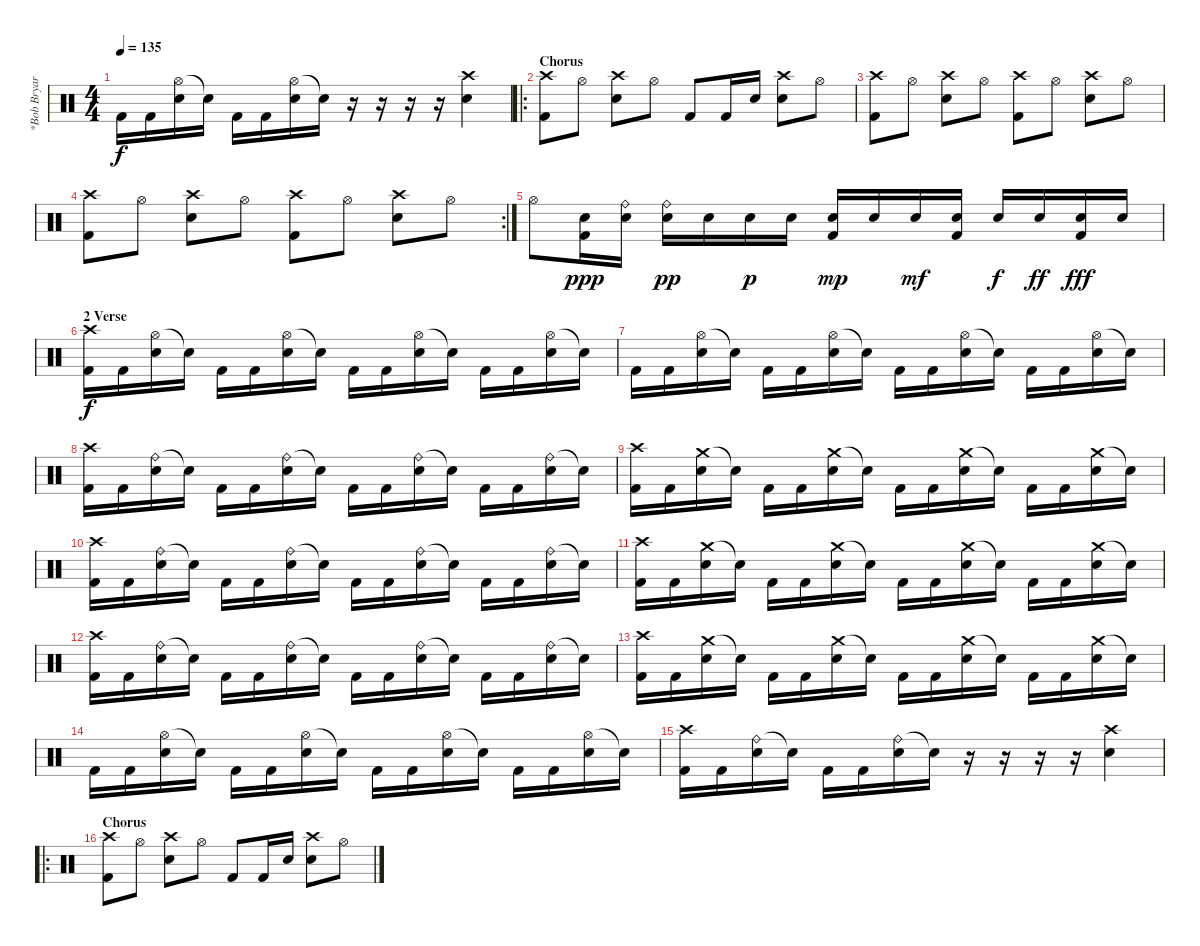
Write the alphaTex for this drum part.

\track ("*Bob Bryar" "*Bob Bryar") {instrument percussion}
\staff {score}
\articulation defaults
\ts (4 4)
\tempo 135
\clef neutral
\ks c "Kick (hit) 2".16{dy f} "Kick (hit) 2".16
("Hi-Hat (open)" "Electric Snare (hit)").16 "Snare (hit)"{t}.16 "Kick (hit) 2".16 "Kick (hit) 2".16 ("Hi-Hat (open)" "Electric Snare (hit)").16 "Snare (hit)"{t}.16 r.16 r.16 r.16 r.16 ("Crash high (hit)" "Electric Snare (hit)").4 |
\ro
\section ("" "Chorus")
("Crash high (hit)" "Kick (hit) 2").8 "Hi-Hat (open)".8 ("Crash high (hit)" "Electric Snare (hit)").8 "Hi-Hat (open)".8 "Kick (hit) 2".8 "Kick (hit) 2".16 "Electric Snare (hit)".16 ("Crash high (hit)" "Electric Snare (hit)").8 "Hi-Hat (open)".8 |
("Crash high (hit)" "Kick (hit) 2").8 "Hi-Hat (open)".8 ("Crash high (hit)" "Electric Snare (hit)").8 "Hi-Hat (open)".8 ("Crash high (hit)" "Kick (hit) 2").8 "Hi-Hat (open)".8 ("Crash high (hit)" "Electric Snare (hit)").8 "Hi-Hat (open)".8 |
\rc 2
("Crash high (hit)" "Kick (hit) 2").8 "Hi-Hat (open)".8 ("Crash high (hit)" "Electric Snare (hit)").8 "Hi-Hat (open)".8 ("Crash high (hit)" "Kick (hit) 2").8 "Hi-Hat (open)".8 ("Crash high (hit)" "Electric Snare (hit)").8 "Hi-Hat (open)".8 |
"Hi-Hat (open)".8 ("Electric Snare (hit)" "Kick (hit) 2").16{dy ppp} ("Ride (bell)" "Electric Snare (hit)").16 ("Ride (bell)" "Electric Snare (hit)").16{dy pp} "Electric Snare (hit)".16 "Electric Snare (hit)".16{dy p} "Electric Snare (hit)".16 ("Electric Snare (hit)" "Kick (hit) 2").16{dy mp} "Electric Snare (hit)".16 "Electric Snare (hit)".16{dy mf} ("Electric Snare (hit)" "Kick (hit) 2").16 "Electric Snare (hit)".16{dy f} "Electric Snare (hit)".16{dy ff} ("Electric Snare (hit)" "Kick (hit) 2").16{dy fff} "Electric Snare (hit)".16 |
\section ("" "2 Verse")
("Crash high (hit)" "Kick (hit) 2").16{dy f} "Kick (hit) 2".16 ("Hi-Hat (open)" "Electric Snare (hit)").16 "Snare (hit)"{t}.16 "Kick (hit) 2".16 "Kick (hit) 2".16 ("Hi-Hat (open)" "Electric Snare (hit)").16 "Snare (hit)"{t}.16 "Kick (hit) 2".16 "Kick (hit) 2".16 ("Hi-Hat (open)" "Electric Snare (hit)").16 "Snare (hit)"{t}.16 "Kick (hit) 2".16 "Kick (hit) 2".16 ("Hi-Hat (open)" "Electric Snare (hit)").16 "Snare (hit)"{t}.16 |
"Kick (hit) 2".16 "Kick (hit) 2".16 ("Hi-Hat (open)" "Electric Snare (hit)").16 "Snare (hit)"{t}.16 "Kick (hit) 2".16 "Kick (hit) 2".16 ("Hi-Hat (open)" "Electric Snare (hit)").16 "Snare (hit)"{t}.16 "Kick (hit) 2".16 "Kick (hit) 2".16 ("Hi-Hat (open)" "Electric Snare (hit)").16 "Snare (hit)"{t}.16 "Kick (hit) 2".16 "Kick (hit) 2".16 ("Hi-Hat (open)" "Electric Snare (hit)").16 "Snare (hit)"{t}.16 |
("Crash high (hit)" "Kick (hit) 2").16 "Kick (hit) 2".16 ("Ride (bell)" "Electric Snare (hit)").16 "Snare (hit)"{t}.16 "Kick (hit) 2".16 "Kick (hit) 2".16 ("Ride (bell)" "Electric Snare (hit)").16 "Snare (hit)"{t}.16 "Kick (hit) 2".16 "Kick (hit) 2".16 ("Ride (bell)" "Electric Snare (hit)").16 "Snare (hit)"{t}.16 "Kick (hit) 2".16 "Kick (hit) 2".16 ("Ride (bell)" "Electric Snare (hit)").16 "Snare (hit)"{t}.16 |
("Crash high (hit)" "Kick (hit) 2").16 "Kick (hit) 2".16 ("Crash medium (hit)" "Electric Snare (hit)").16 "Snare (hit)"{t}.16 "Kick (hit) 2".16 "Kick (hit) 2".16 ("Crash medium (hit)" "Electric Snare (hit)").16 "Snare (hit)"{t}.16 "Kick (hit) 2".16 "Kick (hit) 2".16 ("Crash medium (hit)" "Electric Snare (hit)").16 "Snare (hit)"{t}.16 "Kick (hit) 2".16 "Kick (hit) 2".16 ("Crash medium (hit)" "Electric Snare (hit)").16 "Snare (hit)"{t}.16 |
("Crash high (hit)" "Kick (hit) 2").16 "Kick (hit) 2".16 ("Ride (bell)" "Electric Snare (hit)").16 "Snare (hit)"{t}.16 "Kick (hit) 2".16 "Kick (hit) 2".16 ("Ride (bell)" "Electric Snare (hit)").16 "Snare (hit)"{t}.16 "Kick (hit) 2".16 "Kick (hit) 2".16 ("Ride (bell)" "Electric Snare (hit)").16 "Snare (hit)"{t}.16 "Kick (hit) 2".16 "Kick (hit) 2".16 ("Ride (bell)" "Electric Snare (hit)").16 "Snare (hit)"{t}.16 |
("Crash high (hit)" "Kick (hit) 2").16 "Kick (hit) 2".16 ("Crash medium (hit)" "Electric Snare (hit)").16 "Snare (hit)"{t}.16 "Kick (hit) 2".16 "Kick (hit) 2".16 ("Crash medium (hit)" "Electric Snare (hit)").16 "Snare (hit)"{t}.16 "Kick (hit) 2".16 "Kick (hit) 2".16 ("Crash medium (hit)" "Electric Snare (hit)").16 "Snare (hit)"{t}.16 "Kick (hit) 2".16 "Kick (hit) 2".16 ("Crash medium (hit)" "Electric Snare (hit)").16 "Snare (hit)"{t}.16 |
("Crash high (hit)" "Kick (hit) 2").16 "Kick (hit) 2".16 ("Ride (bell)" "Electric Snare (hit)").16 "Snare (hit)"{t}.16 "Kick (hit) 2".16 "Kick (hit) 2".16 ("Ride (bell)" "Electric Snare (hit)").16 "Snare (hit)"{t}.16 "Kick (hit) 2".16 "Kick (hit) 2".16 ("Ride (bell)" "Electric Snare (hit)").16 "Snare (hit)"{t}.16 "Kick (hit) 2".16 "Kick (hit) 2".16 ("Ride (bell)" "Electric Snare (hit)").16 "Snare (hit)"{t}.16 |
("Crash high (hit)" "Kick (hit) 2").16 "Kick (hit) 2".16 ("Crash medium (hit)" "Electric Snare (hit)").16 "Snare (hit)"{t}.16 "Kick (hit) 2".16 "Kick (hit) 2".16 ("Crash medium (hit)" "Electric Snare (hit)").16 "Snare (hit)"{t}.16 "Kick (hit) 2".16 "Kick (hit) 2".16 ("Crash medium (hit)" "Electric Snare (hit)").16 "Snare (hit)"{t}.16 "Kick (hit) 2".16 "Kick (hit) 2".16 ("Crash medium (hit)" "Electric Snare (hit)").16 "Snare (hit)"{t}.16 |
"Kick (hit) 2".16 "Kick (hit) 2".16 ("Hi-Hat (open)" "Electric Snare (hit)").16 "Snare (hit)"{t}.16 "Kick (hit) 2".16 "Kick (hit) 2".16 ("Hi-Hat (open)" "Electric Snare (hit)").16 "Snare (hit)"{t}.16 "Kick (hit) 2".16 "Kick (hit) 2".16 ("Hi-Hat (open)" "Electric Snare (hit)").16 "Snare (hit)"{t}.16 "Kick (hit) 2".16 "Kick (hit) 2".16 ("Hi-Hat (open)" "Electric Snare (hit)").16 "Snare (hit)"{t}.16 |
("Crash high (hit)" "Kick (hit) 2").16 "Kick (hit) 2".16 ("Ride (bell)" "Electric Snare (hit)").16 "Snare (hit)"{t}.16 "Kick (hit) 2".16 "Kick (hit) 2".16 ("Ride (bell)" "Electric Snare (hit)").16 "Snare (hit)"{t}.16 r.16 r.16 r.16 r.16 ("Crash high (hit)" "Electric Snare (hit)").4 |
\ro
\section ("" "Chorus")
("Crash high (hit)" "Kick (hit) 2").8 "Hi-Hat (open)".8 ("Crash high (hit)" "Electric Snare (hit)").8 "Hi-Hat (open)".8 "Kick (hit) 2".8 "Kick (hit) 2".16 "Electric Snare (hit)".16 ("Crash high (hit)" "Electric Snare (hit)").8 "Hi-Hat (open)".8
